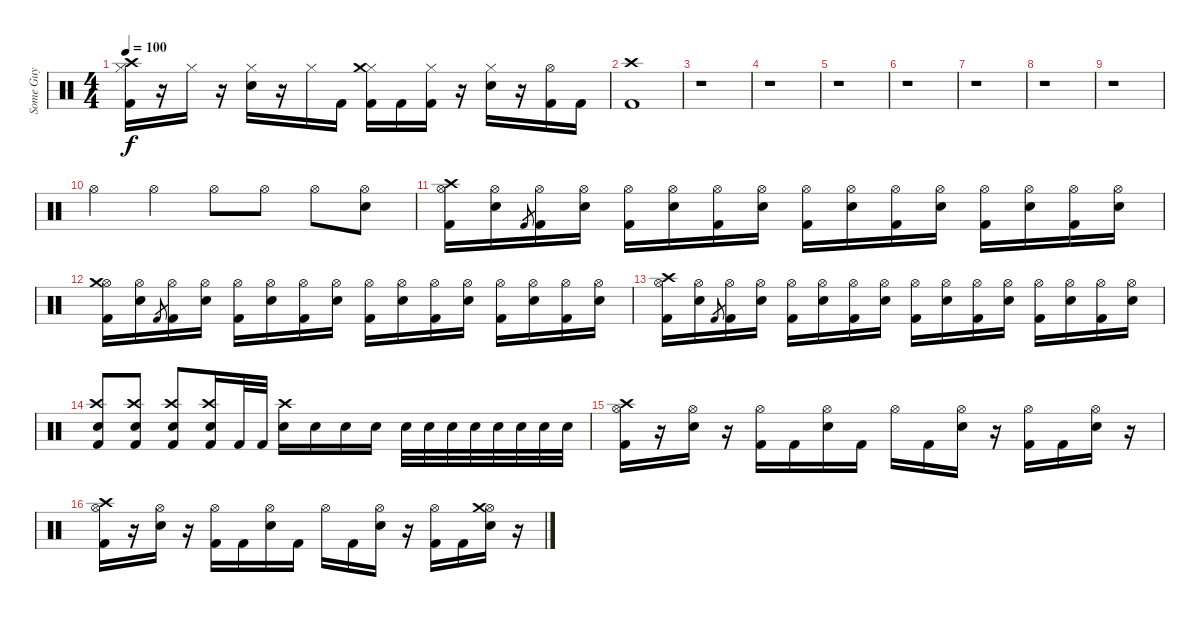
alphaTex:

\track ("Some Guy" "Some Guy") {instrument percussion}
\staff {score}
\articulation defaults
\ts (4 4)
\tempo 100
\clef neutral
\ks c
("Hi-Hat (closed)" "Kick (hit) 2" "Crash high (hit)").16{dy f} r.16 "Hi-Hat (closed)".16 r.16 ("Hi-Hat (closed)" "Snare (hit) 2").16 r.16 "Hi-Hat (closed)".16 "Kick (hit) 2".16 ("Hi-Hat (closed)" "Kick (hit) 2" "Crash medium (hit)").16 "Kick (hit) 2".16 ("Hi-Hat (closed)" "Kick (hit) 2").16 r.16 ("Hi-Hat (closed)" "Snare (hit) 2").16 r.16 ("Hi-Hat (open)" "Kick (hit) 2").16 "Kick (hit) 2".16 |
("Crash high (hit)" "Kick (hit) 2").1 |
r.1 |
r.1 |
r.1 |
r.1 |
r.1 |
r.1 |
r.1 |
"Hi-Hat (open)".4 "Hi-Hat (open)".4 "Hi-Hat (open)".8 "Hi-Hat (open)".8 "Hi-Hat (open)".8 ("Hi-Hat (open)" "Snare (hit) 2").8 |
("Hi-Hat (open)" "Crash high (hit)" "Kick (hit) 2").16 ("Hi-Hat (open)" "Snare (hit) 2").16 "Kick (hit) 2".8{gr} ("Hi-Hat (open)" "Kick (hit) 2").16 ("Hi-Hat (open)" "Snare (hit) 2").16 ("Hi-Hat (open)" "Kick (hit) 2").16 ("Hi-Hat (open)" "Snare (hit) 2").16 ("Hi-Hat (open)" "Kick (hit) 2").16 ("Hi-Hat (open)" "Snare (hit) 2").16 ("Hi-Hat (open)" "Kick (hit) 2").16 ("Hi-Hat (open)" "Snare (hit) 2").16 ("Hi-Hat (open)" "Kick (hit) 2").16 ("Hi-Hat (open)" "Snare (hit) 2").16 ("Hi-Hat (open)" "Kick (hit) 2").16 ("Hi-Hat (open)" "Snare (hit) 2").16 ("Hi-Hat (open)" "Kick (hit) 2").16 ("Hi-Hat (open)" "Snare (hit) 2").16 |
("Hi-Hat (open)" "Crash medium (hit)" "Kick (hit) 2").16 ("Hi-Hat (open)" "Snare (hit) 2").16 "Kick (hit) 2".8{gr} ("Hi-Hat (open)" "Kick (hit) 2").16 ("Hi-Hat (open)" "Snare (hit) 2").16 ("Hi-Hat (open)" "Kick (hit) 2").16 ("Hi-Hat (open)" "Snare (hit) 2").16 ("Hi-Hat (open)" "Kick (hit) 2").16 ("Hi-Hat (open)" "Snare (hit) 2").16 ("Hi-Hat (open)" "Kick (hit) 2").16 ("Hi-Hat (open)" "Snare (hit) 2").16 ("Hi-Hat (open)" "Kick (hit) 2").16 ("Hi-Hat (open)" "Snare (hit) 2").16 ("Hi-Hat (open)" "Kick (hit) 2").16 ("Hi-Hat (open)" "Snare (hit) 2").16 ("Hi-Hat (open)" "Kick (hit) 2").16 ("Hi-Hat (open)" "Snare (hit) 2").16 |
("Hi-Hat (open)" "Crash high (hit)" "Kick (hit) 2").16 ("Hi-Hat (open)" "Snare (hit) 2").16 "Kick (hit) 2".8{gr} ("Hi-Hat (open)" "Kick (hit) 2").16 ("Hi-Hat (open)" "Snare (hit) 2").16 ("Hi-Hat (open)" "Kick (hit) 2").16 ("Hi-Hat (open)" "Snare (hit) 2").16 ("Hi-Hat (open)" "Kick (hit) 2").16 ("Hi-Hat (open)" "Snare (hit) 2").16 ("Hi-Hat (open)" "Kick (hit) 2").16 ("Hi-Hat (open)" "Snare (hit) 2").16 ("Hi-Hat (open)" "Kick (hit) 2").16 ("Hi-Hat (open)" "Snare (hit) 2").16 ("Hi-Hat (open)" "Kick (hit) 2").16 ("Hi-Hat (open)" "Snare (hit) 2").16 ("Hi-Hat (open)" "Kick (hit) 2").16 ("Hi-Hat (open)" "Snare (hit) 2").16 |
("Crash high (hit)" "Kick (hit) 2" "Snare (hit) 2").8 ("Crash high (hit)" "Kick (hit) 2" "Snare (hit) 2").8 ("Crash high (hit)" "Kick (hit) 2" "Snare (hit) 2").8 ("Crash high (hit)" "Kick (hit) 2" "Snare (hit) 2").16 "Kick (hit) 2".32 "Kick (hit) 2".32 ("Snare (hit) 2" "Crash high (hit)").16 "Snare (hit) 2".16 "Snare (hit) 2".16 "Snare (hit) 2".16 "Snare (hit) 2".32 "Snare (hit) 2".32 "Snare (hit) 2".32 "Snare (hit) 2".32 "Snare (hit) 2".32 "Snare (hit) 2".32 "Snare (hit) 2".32 "Snare (hit) 2".32 |
("Hi-Hat (open)" "Crash high (hit)" "Kick (hit) 2").16 r.16 ("Hi-Hat (open)" "Snare (hit) 2").16 r.16 ("Hi-Hat (open)" "Kick (hit) 2").16 "Kick (hit) 2".16 ("Hi-Hat (open)" "Snare (hit) 2").16 "Kick (hit) 2".16 "Hi-Hat (open)".16 "Kick (hit) 2".16 ("Hi-Hat (open)" "Snare (hit) 2").16 r.16 ("Hi-Hat (open)" "Kick (hit) 2").16 "Kick (hit) 2".16 ("Hi-Hat (open)" "Snare (hit) 2").16 r.16 |
("Hi-Hat (open)" "Crash high (hit)" "Kick (hit) 2").16 r.16 ("Hi-Hat (open)" "Snare (hit) 2").16 r.16 ("Hi-Hat (open)" "Kick (hit) 2").16 "Kick (hit) 2".16 ("Hi-Hat (open)" "Snare (hit) 2").16 "Kick (hit) 2".16 "Hi-Hat (open)".16 "Kick (hit) 2".16 ("Hi-Hat (open)" "Snare (hit) 2").16 r.16 ("Hi-Hat (open)" "Kick (hit) 2").16 "Kick (hit) 2".16 ("Hi-Hat (open)" "Crash medium (hit)" "Snare (hit) 2").16 r.16
